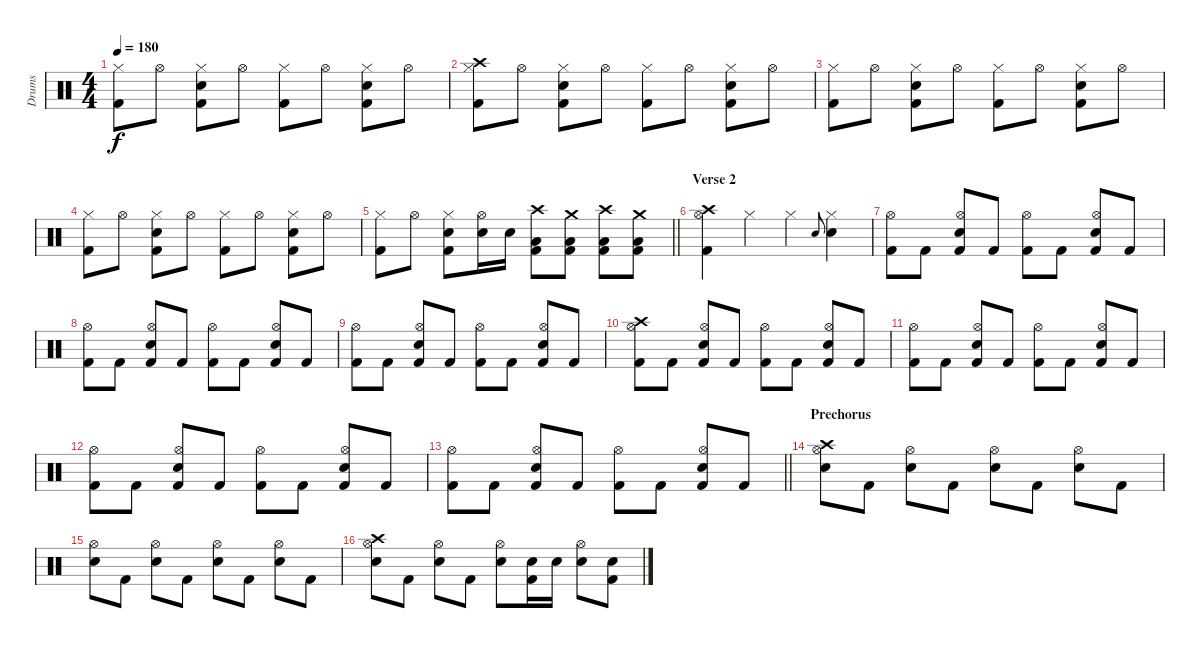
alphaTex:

\track ("Drums" "Drums") {instrument percussion}
\staff {score}
\articulation defaults
\ts (4 4)
\tempo 180
\clef neutral
\ks c
("Hi-Hat (closed)" "Kick (hit) 2").8{dy f} "Hi-Hat (open)".8 ("Hi-Hat (closed)" "Snare (hit) 2" "Kick (hit) 2").8 "Hi-Hat (open)".8 ("Hi-Hat (closed)" "Kick (hit) 2").8 "Hi-Hat (open)".8 ("Hi-Hat (closed)" "Snare (hit) 2" "Kick (hit) 2").8 "Hi-Hat (open)".8 |
("Crash high (hit)" "Hi-Hat (closed)" "Kick (hit) 2").8 "Hi-Hat (open)".8 ("Hi-Hat (closed)" "Snare (hit) 2" "Kick (hit) 2").8 "Hi-Hat (open)".8 ("Hi-Hat (closed)" "Kick (hit) 2").8 "Hi-Hat (open)".8 ("Hi-Hat (closed)" "Snare (hit) 2" "Kick (hit) 2").8 "Hi-Hat (open)".8 |
("Hi-Hat (closed)" "Kick (hit) 2").8 "Hi-Hat (open)".8 ("Hi-Hat (closed)" "Snare (hit) 2" "Kick (hit) 2").8 "Hi-Hat (open)".8 ("Hi-Hat (closed)" "Kick (hit) 2").8 "Hi-Hat (open)".8 ("Hi-Hat (closed)" "Snare (hit) 2" "Kick (hit) 2").8 "Hi-Hat (open)".8 |
("Hi-Hat (closed)" "Kick (hit) 2").8 "Hi-Hat (open)".8 ("Hi-Hat (closed)" "Snare (hit) 2" "Kick (hit) 2").8 "Hi-Hat (open)".8 ("Hi-Hat (closed)" "Kick (hit) 2").8 "Hi-Hat (open)".8 ("Hi-Hat (closed)" "Snare (hit) 2" "Kick (hit) 2").8 "Hi-Hat (open)".8 |
\barLineRight lightlight
("Hi-Hat (closed)" "Kick (hit) 2").8 "Hi-Hat (open)".8 ("Hi-Hat (closed)" "Snare (hit) 2" "Kick (hit) 2").8 ("Hi-Hat (open)" "Snare (hit) 2").16 "Snare (hit) 2".16 ("Crash high (hit)" "Low Floor Tom (hit)" "Kick (hit) 2").8 ("Crash medium (hit)" "Low Floor Tom (hit)" "Kick (hit) 2").8 ("Crash high (hit)" "Low Floor Tom (hit)" "Kick (hit) 2").8 ("Crash medium (hit)" "Low Floor Tom (hit)" "Kick (hit) 2").8 |
\section ("" "Verse 2")
("Crash high (hit)" "Hi-Hat (open)" "Kick (hit) 2").4 "Hi-Hat (closed)".4 "Hi-Hat (closed)".4 "Snare (hit) 2".8{gr onbeat} ("Hi-Hat (closed)" "Snare (hit) 2").4 |
("Hi-Hat (open)" "Kick (hit) 2").8 "Kick (hit) 2".8 ("Hi-Hat (open)" "Snare (hit) 2" "Kick (hit) 2").8 "Kick (hit) 2".8 ("Hi-Hat (open)" "Kick (hit) 2").8 "Kick (hit) 2".8 ("Hi-Hat (open)" "Snare (hit) 2" "Kick (hit) 2").8 "Kick (hit) 2".8 |
("Hi-Hat (open)" "Kick (hit) 2").8 "Kick (hit) 2".8 ("Hi-Hat (open)" "Snare (hit) 2" "Kick (hit) 2").8 "Kick (hit) 2".8 ("Hi-Hat (open)" "Kick (hit) 2").8 "Kick (hit) 2".8 ("Hi-Hat (open)" "Snare (hit) 2" "Kick (hit) 2").8 "Kick (hit) 2".8 |
("Hi-Hat (open)" "Kick (hit) 2").8 "Kick (hit) 2".8 ("Hi-Hat (open)" "Snare (hit) 2" "Kick (hit) 2").8 "Kick (hit) 2".8 ("Hi-Hat (open)" "Kick (hit) 2").8 "Kick (hit) 2".8 ("Hi-Hat (open)" "Snare (hit) 2" "Kick (hit) 2").8 "Kick (hit) 2".8 |
("Crash high (hit)" "Hi-Hat (open)" "Kick (hit) 2").8 "Kick (hit) 2".8 ("Hi-Hat (open)" "Snare (hit) 2" "Kick (hit) 2").8 "Kick (hit) 2".8 ("Hi-Hat (open)" "Kick (hit) 2").8 "Kick (hit) 2".8 ("Hi-Hat (open)" "Snare (hit) 2" "Kick (hit) 2").8 "Kick (hit) 2".8 |
("Hi-Hat (open)" "Kick (hit) 2").8 "Kick (hit) 2".8 ("Hi-Hat (open)" "Snare (hit) 2" "Kick (hit) 2").8 "Kick (hit) 2".8 ("Hi-Hat (open)" "Kick (hit) 2").8 "Kick (hit) 2".8 ("Hi-Hat (open)" "Snare (hit) 2" "Kick (hit) 2").8 "Kick (hit) 2".8 |
("Hi-Hat (open)" "Kick (hit) 2").8 "Kick (hit) 2".8 ("Hi-Hat (open)" "Snare (hit) 2" "Kick (hit) 2").8 "Kick (hit) 2".8 ("Hi-Hat (open)" "Kick (hit) 2").8 "Kick (hit) 2".8 ("Hi-Hat (open)" "Snare (hit) 2" "Kick (hit) 2").8 "Kick (hit) 2".8 |
\barLineRight lightlight
("Hi-Hat (open)" "Kick (hit) 2").8 "Kick (hit) 2".8 ("Hi-Hat (open)" "Snare (hit) 2" "Kick (hit) 2").8 "Kick (hit) 2".8 ("Hi-Hat (open)" "Kick (hit) 2").8 "Kick (hit) 2".8 ("Hi-Hat (open)" "Snare (hit) 2" "Kick (hit) 2").8 "Kick (hit) 2".8 |
\section ("" "Prechorus")
("Crash high (hit)" "Hi-Hat (open)" "Snare (hit) 2").8 "Kick (hit) 2".8 ("Hi-Hat (open)" "Snare (hit) 2").8 "Kick (hit) 2".8 ("Hi-Hat (open)" "Snare (hit) 2").8 "Kick (hit) 2".8 ("Hi-Hat (open)" "Snare (hit) 2").8 "Kick (hit) 2".8 |
("Hi-Hat (open)" "Snare (hit) 2").8 "Kick (hit) 2".8 ("Hi-Hat (open)" "Snare (hit) 2").8 "Kick (hit) 2".8 ("Hi-Hat (open)" "Snare (hit) 2").8 "Kick (hit) 2".8 ("Hi-Hat (open)" "Snare (hit) 2").8 "Kick (hit) 2".8 |
("Crash high (hit)" "Hi-Hat (open)" "Snare (hit) 2").8 "Kick (hit) 2".8 ("Hi-Hat (open)" "Snare (hit) 2").8 "Kick (hit) 2".8 ("Hi-Hat (open)" "Snare (hit) 2").8 ("Snare (hit) 2" "Kick (hit) 2").16 "Snare (hit) 2".16 ("Hi-Hat (open)" "Snare (hit) 2").8 ("Snare (hit) 2" "Kick (hit) 2").8
